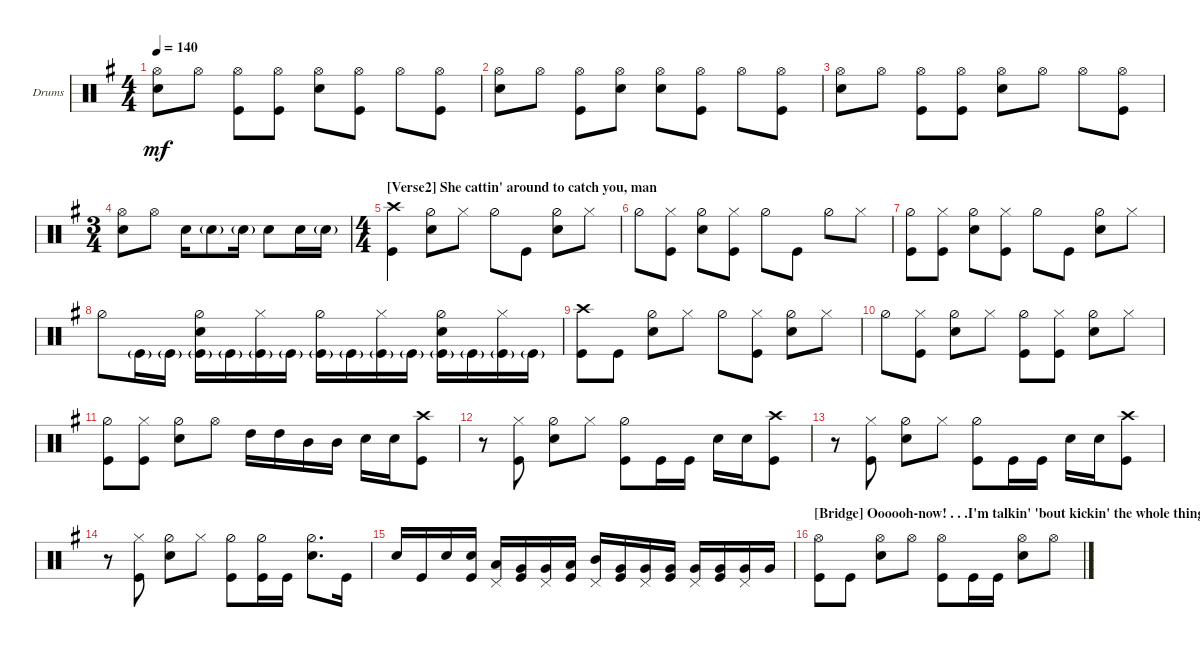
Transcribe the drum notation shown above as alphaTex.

\defaultSystemsLayout 4
\bracketExtendMode groupsimilarinstruments
\firstSystemTrackNameOrientation horizontal
\otherSystemsTrackNameOrientation horizontal
\track ("Drumkit" "Drums") {instrument percussion}
\staff {score}
\articulation defaults
\ts (4 4)
\tempo 140
\clef neutral
\ks g
("Hi-Hat (open)" "Snare (hit) 2").8{dy mf} "Hi-Hat (open)".8 ("Hi-Hat (open)" "Kick (hit)").8 ("Hi-Hat (open)" "Kick (hit)").8 ("Hi-Hat (open)" "Snare (hit) 2").8 ("Hi-Hat (open)" "Kick (hit)").8 "Hi-Hat (open)".8 ("Hi-Hat (open)" "Kick (hit)").8 |
("Hi-Hat (open)" "Snare (hit) 2").8 "Hi-Hat (open)".8 ("Hi-Hat (open)" "Kick (hit)").8 ("Hi-Hat (open)" "Snare (hit) 2").8 ("Hi-Hat (open)" "Snare (hit) 2").8 ("Hi-Hat (open)" "Kick (hit)").8 "Hi-Hat (open)".8 ("Hi-Hat (open)" "Kick (hit)").8 |
("Hi-Hat (open)" "Snare (hit) 2").8 "Hi-Hat (open)".8 ("Hi-Hat (open)" "Kick (hit)").8 ("Hi-Hat (open)" "Kick (hit)").8 ("Hi-Hat (open)" "Snare (hit) 2").8 "Hi-Hat (open)".8 "Hi-Hat (open)".8 ("Hi-Hat (open)" "Kick (hit)").8 |
\ts (3 4)
("Hi-Hat (open)" "Snare (hit) 2").8 "Hi-Hat (open)".8 "Snare (hit) 2".16 "Snare (hit) 2"{g}.8 "Snare (hit) 2"{g}.16 "Snare (hit) 2".8 "Snare (hit) 2".16 "Snare (hit) 2"{g}.16 |
\ts (4 4)
\section ("" "[Verse2] She cattin' around to catch you, man")
("Crash high (hit)" "Kick (hit)").4 ("Hi-Hat (half)" "Snare (hit) 2").8 "Hi-Hat (closed)".8 "Hi-Hat (half)".8 "Kick (hit)".8 ("Hi-Hat (half)" "Snare (hit) 2").8 "Hi-Hat (closed)".8 |
"Hi-Hat (half)".8 ("Hi-Hat (closed)" "Kick (hit)").8 ("Hi-Hat (half)" "Snare (hit) 2").8 ("Hi-Hat (closed)" "Kick (hit)").8 "Hi-Hat (half)".8 "Kick (hit)".8 "Hi-Hat (half)".8 "Hi-Hat (closed)".8 |
("Hi-Hat (half)" "Kick (hit)").8 ("Hi-Hat (closed)" "Kick (hit)").8 ("Hi-Hat (half)" "Snare (hit) 2").8 ("Hi-Hat (closed)" "Kick (hit)").8 "Hi-Hat (half)".8 "Kick (hit)".8 ("Hi-Hat (half)" "Snare (hit) 2").8 "Hi-Hat (closed)".8 |
"Hi-Hat (half)".8 "Kick (hit)"{g}.16 "Kick (hit)"{g}.16 ("Kick (hit)"{g} "Hi-Hat (half)" "Snare (hit) 2").16 "Kick (hit)"{g}.16 ("Kick (hit)"{g} "Hi-Hat (closed)").16 "Kick (hit)"{g}.16 ("Kick (hit)"{g} "Hi-Hat (half)").16 "Kick (hit)"{g}.16 ("Kick (hit)"{g} "Hi-Hat (closed)").16 "Kick (hit)"{g}.16 ("Kick (hit)"{g} "Hi-Hat (half)" "Snare (hit) 2").16 "Kick (hit)"{g}.16 ("Kick (hit)"{g} "Hi-Hat (closed)").16 "Kick (hit)"{g}.16 |
("Crash high (hit)" "Kick (hit)").8 "Kick (hit)".8 ("Hi-Hat (half)" "Snare (hit) 2").8 "Hi-Hat (closed)".8 "Hi-Hat (half)".8 ("Kick (hit)" "Hi-Hat (closed)").8 ("Hi-Hat (half)" "Snare (hit) 2").8 "Hi-Hat (closed)".8 |
"Hi-Hat (half)".8 ("Hi-Hat (closed)" "Kick (hit)").8 ("Hi-Hat (half)" "Snare (hit) 2").8 "Hi-Hat (closed)".8 ("Hi-Hat (half)" "Kick (hit)").8 ("Kick (hit)" "Hi-Hat (closed)").8 ("Hi-Hat (half)" "Snare (hit) 2").8 "Hi-Hat (closed)".8 |
("Hi-Hat (half)" "Kick (hit)").8 ("Hi-Hat (closed)" "Kick (hit)").8 ("Hi-Hat (half)" "Snare (hit) 2").8 "Hi-Hat (open)".8 "High Tom (hit)".16 "High Tom (hit)".16 "Mid Tom (hit)".16 "Mid Tom (hit)".16 "Snare (hit) 2".16 "Snare (hit) 2".16 ("Kick (hit)" "Crash high (hit)").8 |
r.8 ("Hi-Hat (closed)" "Kick (hit)").8 ("Hi-Hat (half)" "Snare (hit) 2").8 "Hi-Hat (closed)".8 ("Hi-Hat (half)" "Kick (hit)").8 "Kick (hit)".16 "Kick (hit)".16 "Snare (hit) 2".16 "Snare (hit) 2".16 ("Kick (hit)" "Crash high (hit)").8 |
r.8 ("Hi-Hat (closed)" "Kick (hit)").8 ("Hi-Hat (half)" "Snare (hit) 2").8 "Hi-Hat (closed)".8 ("Hi-Hat (half)" "Kick (hit)").8 "Kick (hit)".16 "Kick (hit)".16 "Snare (hit) 2".16 "Snare (hit) 2".16 ("Kick (hit)" "Crash high (hit)").8 |
r.8 ("Hi-Hat (closed)" "Kick (hit)").8 ("Hi-Hat (half)" "Snare (hit) 2").8 "Hi-Hat (closed)".8 ("Hi-Hat (half)" "Kick (hit)").8 ("Kick (hit)" "Hi-Hat (half)").16 "Kick (hit)".16 ("Snare (hit) 2" "Hi-Hat (half)").8{d} "Kick (hit)".16 |
"Snare (hit) 2".16 "Kick (hit)".16 "Snare (hit) 2".16 ("Kick (hit)" "Snare (hit) 2").16 ("Pedal Hi-Hat (hit)" "Low Tom (hit)").16 ("Kick (hit)" "Very Low Tom (hit)").16 ("Pedal Hi-Hat (hit)" "Very Low Tom (hit)").16 ("Kick (hit)" "Low Tom (hit)").16 ("Pedal Hi-Hat (hit)" "Mid Tom (hit)").16 ("Kick (hit)" "Very Low Tom (hit)").16 ("Pedal Hi-Hat (hit)" "Very Low Tom (hit)").16 ("Kick (hit)" "Very Low Tom (hit)").16 ("Pedal Hi-Hat (hit)" "Very Low Tom (hit)").16 ("Kick (hit)" "Very Low Tom (hit)").16 ("Pedal Hi-Hat (hit)" "Very Low Tom (hit)").16 "Very Low Tom (hit)".16 |
\section ("" "[Bridge] Oooooh-now! . . .I'm talkin' 'bout kickin' the whole thing")
("Hi-Hat (open)" "Kick (hit)").8 "Kick (hit)".8 ("Hi-Hat (open)" "Snare (hit) 2").8 "Hi-Hat (open)".8 ("Hi-Hat (open)" "Kick (hit)").8 "Kick (hit)".16 "Kick (hit)".16 ("Hi-Hat (open)" "Snare (hit) 2").8 "Hi-Hat (open)".8
